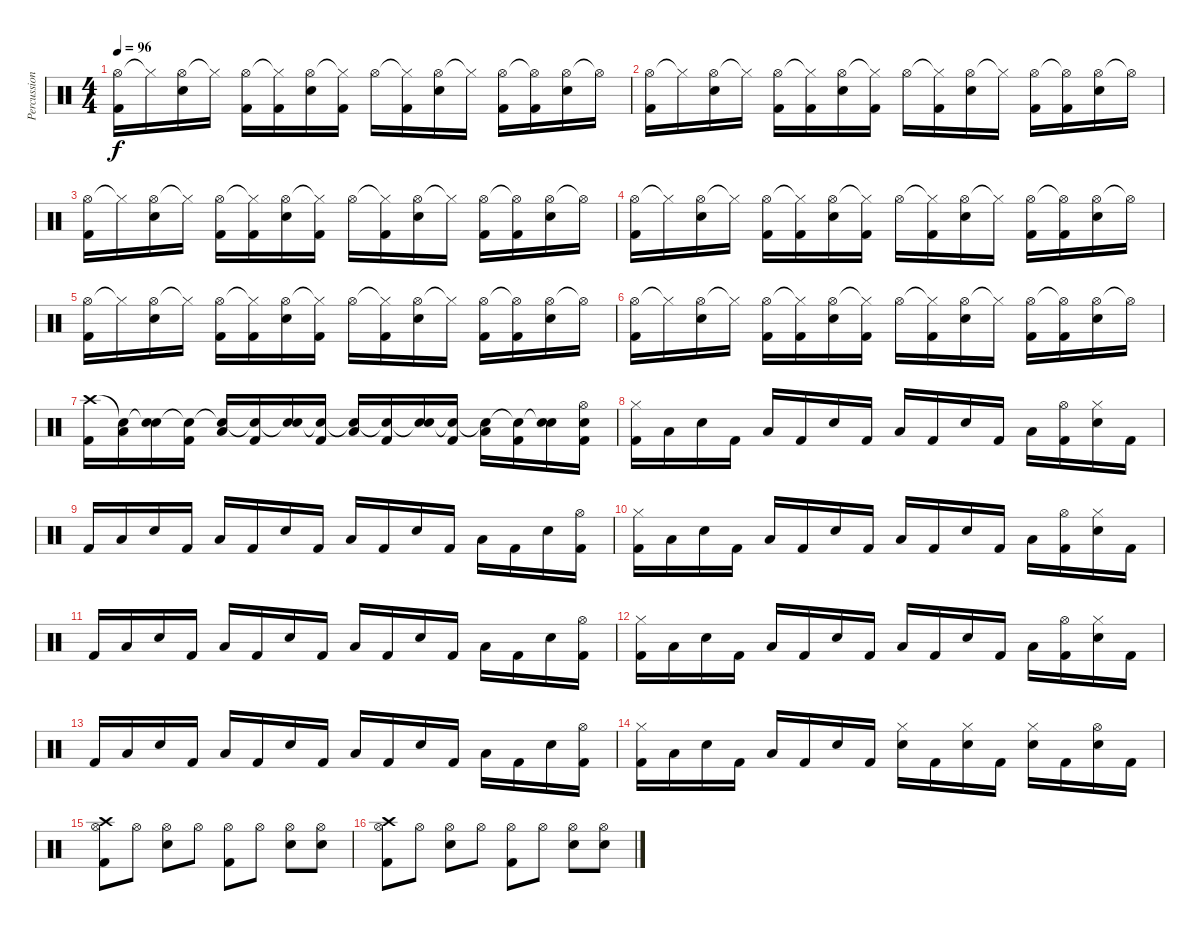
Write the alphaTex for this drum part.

\track ("Percussion" "Percussion") {instrument percussion}
\staff {score}
\articulation defaults
\ts (4 4)
\tempo 96
\clef neutral
\ks c
("Hi-Hat (open)" "Kick (hit) 2").16{dy f} "Hi-Hat (closed)"{t}.16 ("Hi-Hat (open)" "Electric Snare (hit)").16 "Hi-Hat (closed)"{t}.16 ("Hi-Hat (open)" "Kick (hit) 2").16 ("Hi-Hat (closed)"{t} "Kick (hit) 2").16 ("Hi-Hat (open)" "Electric Snare (hit)").16 ("Hi-Hat (closed)"{t} "Kick (hit) 2").16 "Hi-Hat (open)".16 ("Hi-Hat (closed)"{t} "Kick (hit) 2").16 ("Hi-Hat (open)" "Electric Snare (hit)").16 "Hi-Hat (closed)"{t}.16 ("Hi-Hat (open)" "Kick (hit) 2").16 ("Hi-Hat (open)"{t} "Kick (hit) 2").16 ("Hi-Hat (open)" "Electric Snare (hit)").16 "Hi-Hat (open)"{t}.16 |
("Hi-Hat (open)" "Kick (hit) 2").16 "Hi-Hat (closed)"{t}.16 ("Hi-Hat (open)" "Electric Snare (hit)").16 "Hi-Hat (closed)"{t}.16 ("Hi-Hat (open)" "Kick (hit) 2").16 ("Hi-Hat (closed)"{t} "Kick (hit) 2").16 ("Hi-Hat (open)" "Electric Snare (hit)").16 ("Hi-Hat (closed)"{t} "Kick (hit) 2").16 "Hi-Hat (open)".16 ("Hi-Hat (closed)"{t} "Kick (hit) 2").16 ("Hi-Hat (open)" "Electric Snare (hit)").16 "Hi-Hat (closed)"{t}.16 ("Hi-Hat (open)" "Kick (hit) 2").16 ("Hi-Hat (open)"{t} "Kick (hit) 2").16 ("Hi-Hat (open)" "Electric Snare (hit)").16 "Hi-Hat (open)"{t}.16 |
("Hi-Hat (open)" "Kick (hit) 2").16 "Hi-Hat (closed)"{t}.16 ("Hi-Hat (open)" "Electric Snare (hit)").16 "Hi-Hat (closed)"{t}.16 ("Hi-Hat (open)" "Kick (hit) 2").16 ("Hi-Hat (closed)"{t} "Kick (hit) 2").16 ("Hi-Hat (open)" "Electric Snare (hit)").16 ("Hi-Hat (closed)"{t} "Kick (hit) 2").16 "Hi-Hat (open)".16 ("Hi-Hat (closed)"{t} "Kick (hit) 2").16 ("Hi-Hat (open)" "Electric Snare (hit)").16 "Hi-Hat (closed)"{t}.16 ("Hi-Hat (open)" "Kick (hit) 2").16 ("Hi-Hat (open)"{t} "Kick (hit) 2").16 ("Hi-Hat (open)" "Electric Snare (hit)").16 "Hi-Hat (open)"{t}.16 |
("Hi-Hat (open)" "Kick (hit) 2").16 "Hi-Hat (closed)"{t}.16 ("Hi-Hat (open)" "Electric Snare (hit)").16 "Hi-Hat (closed)"{t}.16 ("Hi-Hat (open)" "Kick (hit) 2").16 ("Hi-Hat (closed)"{t} "Kick (hit) 2").16 ("Hi-Hat (open)" "Electric Snare (hit)").16 ("Hi-Hat (closed)"{t} "Kick (hit) 2").16 "Hi-Hat (open)".16 ("Hi-Hat (closed)"{t} "Kick (hit) 2").16 ("Hi-Hat (open)" "Electric Snare (hit)").16 "Hi-Hat (closed)"{t}.16 ("Hi-Hat (open)" "Kick (hit) 2").16 ("Hi-Hat (open)"{t} "Kick (hit) 2").16 ("Hi-Hat (open)" "Electric Snare (hit)").16 "Hi-Hat (open)"{t}.16 |
("Hi-Hat (open)" "Kick (hit) 2").16 "Hi-Hat (closed)"{t}.16 ("Hi-Hat (open)" "Electric Snare (hit)").16 "Hi-Hat (closed)"{t}.16 ("Hi-Hat (open)" "Kick (hit) 2").16 ("Hi-Hat (closed)"{t} "Kick (hit) 2").16 ("Hi-Hat (open)" "Electric Snare (hit)").16 ("Hi-Hat (closed)"{t} "Kick (hit) 2").16 "Hi-Hat (open)".16 ("Hi-Hat (closed)"{t} "Kick (hit) 2").16 ("Hi-Hat (open)" "Electric Snare (hit)").16 "Hi-Hat (closed)"{t}.16 ("Hi-Hat (open)" "Kick (hit) 2").16 ("Hi-Hat (open)"{t} "Kick (hit) 2").16 ("Hi-Hat (open)" "Electric Snare (hit)").16 "Hi-Hat (open)"{t}.16 |
("Hi-Hat (open)" "Kick (hit) 2").16 "Hi-Hat (closed)"{t}.16 ("Hi-Hat (open)" "Electric Snare (hit)").16 "Hi-Hat (closed)"{t}.16 ("Hi-Hat (open)" "Kick (hit) 2").16 ("Hi-Hat (closed)"{t} "Kick (hit) 2").16 ("Hi-Hat (open)" "Electric Snare (hit)").16 ("Hi-Hat (closed)"{t} "Kick (hit) 2").16 "Hi-Hat (open)".16 ("Hi-Hat (closed)"{t} "Kick (hit) 2").16 ("Hi-Hat (open)" "Electric Snare (hit)").16 "Hi-Hat (closed)"{t}.16 ("Hi-Hat (open)" "Kick (hit) 2").16 ("Hi-Hat (open)"{t} "Kick (hit) 2").16 ("Hi-Hat (open)" "Electric Snare (hit)").16 "Hi-Hat (open)"{t}.16 |
("Kick (hit) 2" "Crash high (hit)").16 ("Low Tom (hit)" "Snare (hit)"{t}).16 ("Electric Snare (hit)" "Snare (hit)"{t}).16 ("Kick (hit) 2" "Snare (hit)"{t}).16 ("Low Tom (hit)" "Snare (hit)"{t}).16 ("Kick (hit) 2" "Snare (hit)"{t}).16 ("Electric Snare (hit)" "Snare (hit)"{t}).16 ("Kick (hit) 2" "Snare (hit)"{t}).16 ("Low Tom (hit)" "Snare (hit)"{t}).16 ("Kick (hit) 2" "Snare (hit)"{t}).16 ("Electric Snare (hit)" "Snare (hit)"{t}).16 ("Kick (hit) 2" "Snare (hit)"{t}).16 ("Low Tom (hit)" "Snare (hit)"{t}).16 ("Kick (hit) 2" "Snare (hit)"{t}).16 ("Electric Snare (hit)" "Snare (hit)"{t}).16 ("Hi-Hat (open)" "Kick (hit) 2" "Snare (hit)").16 |
("Hi-Hat (closed)" "Kick (hit) 2").16 "Low Tom (hit)".16 "Electric Snare (hit)".16 "Kick (hit) 2".16 "Low Tom (hit)".16 "Kick (hit) 2".16 "Electric Snare (hit)".16 "Kick (hit) 2".16 "Low Tom (hit)".16 "Kick (hit) 2".16 "Electric Snare (hit)".16 "Kick (hit) 2".16 "Low Tom (hit)".16 ("Hi-Hat (open)" "Kick (hit) 2").16 ("Hi-Hat (closed)" "Electric Snare (hit)").16 "Kick (hit) 2".16 |
"Kick (hit) 2".16 "Low Tom (hit)".16 "Electric Snare (hit)".16 "Kick (hit) 2".16 "Low Tom (hit)".16 "Kick (hit) 2".16 "Electric Snare (hit)".16 "Kick (hit) 2".16 "Low Tom (hit)".16 "Kick (hit) 2".16 "Electric Snare (hit)".16 "Kick (hit) 2".16 "Low Tom (hit)".16 "Kick (hit) 2".16 "Electric Snare (hit)".16 ("Hi-Hat (open)" "Kick (hit) 2").16 |
("Hi-Hat (closed)" "Kick (hit) 2").16 "Low Tom (hit)".16 "Electric Snare (hit)".16 "Kick (hit) 2".16 "Low Tom (hit)".16 "Kick (hit) 2".16 "Electric Snare (hit)".16 "Kick (hit) 2".16 "Low Tom (hit)".16 "Kick (hit) 2".16 "Electric Snare (hit)".16 "Kick (hit) 2".16 "Low Tom (hit)".16 ("Hi-Hat (open)" "Kick (hit) 2").16 ("Hi-Hat (closed)" "Electric Snare (hit)").16 "Kick (hit) 2".16 |
"Kick (hit) 2".16 "Low Tom (hit)".16 "Electric Snare (hit)".16 "Kick (hit) 2".16 "Low Tom (hit)".16 "Kick (hit) 2".16 "Electric Snare (hit)".16 "Kick (hit) 2".16 "Low Tom (hit)".16 "Kick (hit) 2".16 "Electric Snare (hit)".16 "Kick (hit) 2".16 "Low Tom (hit)".16 "Kick (hit) 2".16 "Electric Snare (hit)".16 ("Hi-Hat (open)" "Kick (hit) 2").16 |
("Hi-Hat (closed)" "Kick (hit) 2").16 "Low Tom (hit)".16 "Electric Snare (hit)".16 "Kick (hit) 2".16 "Low Tom (hit)".16 "Kick (hit) 2".16 "Electric Snare (hit)".16 "Kick (hit) 2".16 "Low Tom (hit)".16 "Kick (hit) 2".16 "Electric Snare (hit)".16 "Kick (hit) 2".16 "Low Tom (hit)".16 ("Hi-Hat (open)" "Kick (hit) 2").16 ("Hi-Hat (closed)" "Electric Snare (hit)").16 "Kick (hit) 2".16 |
"Kick (hit) 2".16 "Low Tom (hit)".16 "Electric Snare (hit)".16 "Kick (hit) 2".16 "Low Tom (hit)".16 "Kick (hit) 2".16 "Electric Snare (hit)".16 "Kick (hit) 2".16 "Low Tom (hit)".16 "Kick (hit) 2".16 "Electric Snare (hit)".16 "Kick (hit) 2".16 "Low Tom (hit)".16 "Kick (hit) 2".16 "Electric Snare (hit)".16 ("Hi-Hat (open)" "Kick (hit) 2").16 |
("Hi-Hat (closed)" "Kick (hit) 2").16{volume 15} "Low Tom (hit)".16 "Electric Snare (hit)".16 "Kick (hit) 2".16 "Low Tom (hit)".16 "Kick (hit) 2".16 "Electric Snare (hit)".16 "Kick (hit) 2".16 ("Hi-Hat (closed)" "Electric Snare (hit)").16 "Kick (hit) 2".16 ("Hi-Hat (closed)" "Electric Snare (hit)").16 "Kick (hit) 2".16 ("Hi-Hat (closed)" "Electric Snare (hit)").16 "Kick (hit) 2".16 ("Hi-Hat (open)" "Electric Snare (hit)").16 "Kick (hit) 2".16 |
("Hi-Hat (open)" "Kick (hit) 2" "Crash high (hit)").8 "Hi-Hat (open)".8 ("Hi-Hat (open)" "Electric Snare (hit)").8 "Hi-Hat (open)".8 ("Hi-Hat (open)" "Kick (hit) 2").8 "Hi-Hat (open)".8 ("Hi-Hat (open)" "Electric Snare (hit)").8 ("Hi-Hat (open)" "Electric Snare (hit)").8 |
("Hi-Hat (open)" "Kick (hit) 2" "Crash high (hit)").8 "Hi-Hat (open)".8 ("Hi-Hat (open)" "Electric Snare (hit)").8 "Hi-Hat (open)".8 ("Hi-Hat (open)" "Kick (hit) 2").8 "Hi-Hat (open)".8 ("Hi-Hat (open)" "Electric Snare (hit)").8 ("Hi-Hat (open)" "Electric Snare (hit)").8
